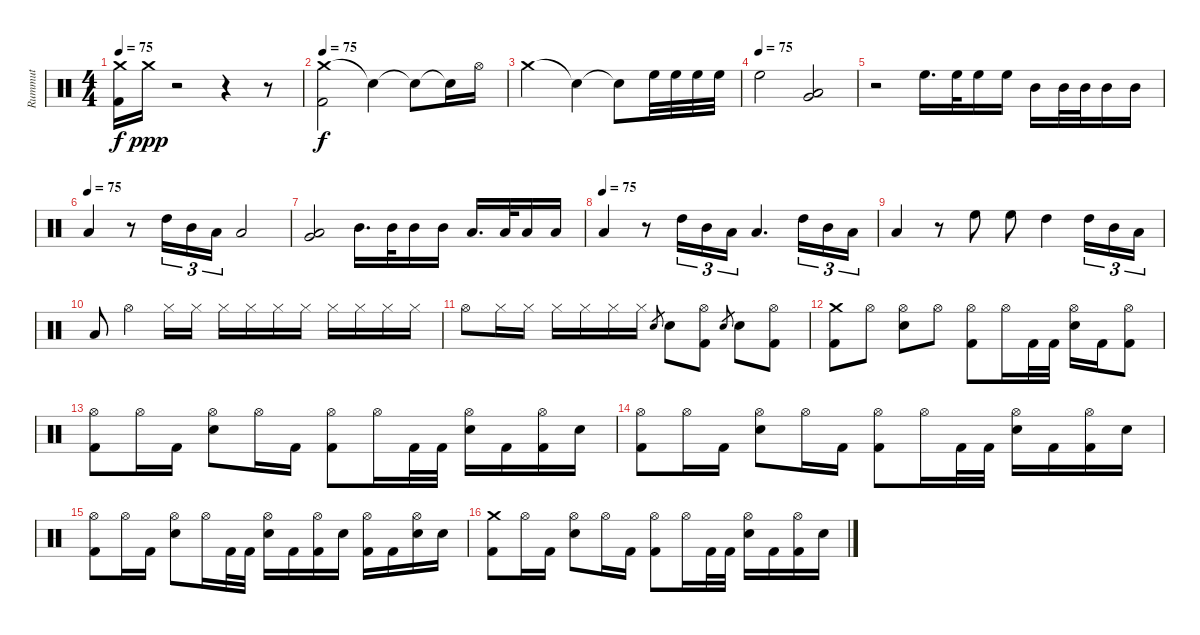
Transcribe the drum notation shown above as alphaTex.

\track ("Rummut" "Rummut") {instrument percussion}
\staff {score}
\articulation defaults
\ts (4 4)
\tempo 75
\clef neutral
\ks c
("Crash medium (hit)" "Kick (hit) 2").16{dy f} "Crash medium (hit)".16{dy ppp} r.2 r.4 r.8 |
\tempo 75
("Crash medium (hit)" "Kick (hit) 2").2{dy f} "Snare (hit)"{t}.4 "Snare (hit)"{t}.8 "Snare (hit)"{t}.16 "Hi-Hat (open)".16 |
"Crash medium (hit)".2 "Snare (hit)"{t}.4 "Snare (hit)"{t}.8 "High Floor Tom (hit)".32 "High Floor Tom (hit)".32 "High Floor Tom (hit)".32 "High Floor Tom (hit)".32 |
\tempo (75)
"High Floor Tom (hit)".2 ("Very Low Tom (hit)" "Low Floor Tom (hit)").2 |
r.2 "High Floor Tom (hit)".16{d} "High Floor Tom (hit)".32 "High Floor Tom (hit)".16 "High Floor Tom (hit)".16 "Mid Tom (hit)".16 "Mid Tom (hit)".32 "Mid Tom (hit)".32 "Mid Tom (hit)".16 "Mid Tom (hit)".16 |
\tempo (75)
"Low Floor Tom (hit)".4 r.8 "High Tom (hit)".16{tu (3 2)} "Mid Tom (hit)".16{tu (3 2)} "Low Tom (hit)".16{tu (3 2)} "Low Floor Tom (hit)".2 |
("Very Low Tom (hit)" "Low Floor Tom (hit)").2 "Mid Tom (hit)".16{d} "Mid Tom (hit)".32 "Mid Tom (hit)".16 "Mid Tom (hit)".16 "Low Tom (hit)".16{d} "Low Tom (hit)".32 "Low Tom (hit)".16 "Low Tom (hit)".16 |
\tempo (75)
"Low Floor Tom (hit)".4 r.8 "High Tom (hit)".16{tu (3 2)} "Mid Tom (hit)".16{tu (3 2)} "Low Tom (hit)".16{tu (3 2)} "Low Floor Tom (hit)".4{d} "High Tom (hit)".16{tu (3 2)} "Mid Tom (hit)".16{tu (3 2)} "Low Tom (hit)".16{tu (3 2)} |
"Low Floor Tom (hit)".4 r.8 "High Floor Tom (hit)".8 "High Floor Tom (hit)".8 "High Tom (hit)".4 "High Tom (hit)".16{tu (3 2)} "Mid Tom (hit)".16{tu (3 2)} "Low Tom (hit)".16{tu (3 2)} |
"Low Floor Tom (hit)".8 "Hi-Hat (open)".4 "Hi-Hat (closed)".16 "Hi-Hat (closed)".16 "Hi-Hat (closed)".16 "Hi-Hat (closed)".16 "Hi-Hat (closed)".16 "Hi-Hat (closed)".16 "Hi-Hat (closed)".16 "Hi-Hat (closed)".16 "Hi-Hat (closed)".16 "Hi-Hat (closed)".16 |
"Hi-Hat (open)".8 "Hi-Hat (closed)".16 "Hi-Hat (closed)".16 "Hi-Hat (closed)".16 "Hi-Hat (closed)".16 "Hi-Hat (closed)".16 "Hi-Hat (closed)".16 "Snare (hit) 2".8{gr} "Snare (hit) 2".8 ("Hi-Hat (open)" "Kick (hit) 2").8 "Snare (hit) 2".8{gr} "Snare (hit) 2".8 ("Hi-Hat (open)" "Kick (hit) 2").8 |
("Crash medium (hit)" "Kick (hit) 2").8 "Hi-Hat (open)".8 ("Hi-Hat (open)" "Snare (hit) 2").8 "Hi-Hat (open)".8 ("Hi-Hat (open)" "Kick (hit) 2").8 "Hi-Hat (open)".16 "Kick (hit) 2".32 "Kick (hit) 2".32 ("Hi-Hat (open)" "Snare (hit) 2").16 "Kick (hit) 2".16 ("Hi-Hat (open)" "Kick (hit) 2").8 |
("Hi-Hat (open)" "Kick (hit) 2").8 "Hi-Hat (open)".16 "Kick (hit) 2".16 ("Hi-Hat (open)" "Snare (hit) 2").8 "Hi-Hat (open)".16 "Kick (hit) 2".16 ("Hi-Hat (open)" "Kick (hit) 2").8 "Hi-Hat (open)".16 "Kick (hit) 2".32 "Kick (hit) 2".32 ("Hi-Hat (open)" "Snare (hit) 2").16 "Kick (hit) 2".16 ("Hi-Hat (open)" "Kick (hit) 2").16 "Snare (hit) 2".16 |
("Hi-Hat (open)" "Kick (hit) 2").8 "Hi-Hat (open)".16 "Kick (hit) 2".16 ("Hi-Hat (open)" "Snare (hit) 2").8 "Hi-Hat (open)".16 "Kick (hit) 2".16 ("Hi-Hat (open)" "Kick (hit) 2").8 "Hi-Hat (open)".16 "Kick (hit) 2".32 "Kick (hit) 2".32 ("Hi-Hat (open)" "Snare (hit) 2").16 "Kick (hit) 2".16 ("Hi-Hat (open)" "Kick (hit) 2").16 "Snare (hit) 2".16 |
("Hi-Hat (open)" "Kick (hit) 2").8 "Hi-Hat (open)".16 "Kick (hit) 2".16 ("Hi-Hat (open)" "Snare (hit) 2").8 "Hi-Hat (open)".16 "Kick (hit) 2".32 "Kick (hit) 2".32 ("Hi-Hat (open)" "Snare (hit) 2").16 "Kick (hit) 2".16 ("Hi-Hat (open)" "Kick (hit) 2").16 "Snare (hit) 2".16 ("Hi-Hat (open)" "Kick (hit) 2").16 "Kick (hit) 2".16 ("Hi-Hat (open)" "Snare (hit) 2").16 "Snare (hit) 2".16 |
("Crash medium (hit)" "Kick (hit) 2").8 "Hi-Hat (open)".16 "Kick (hit) 2".16 ("Hi-Hat (open)" "Snare (hit) 2").8 "Hi-Hat (open)".16 "Kick (hit) 2".16 ("Hi-Hat (open)" "Kick (hit) 2").8 "Hi-Hat (open)".16 "Kick (hit) 2".32 "Kick (hit) 2".32 ("Hi-Hat (open)" "Snare (hit) 2").16 "Kick (hit) 2".16 ("Hi-Hat (open)" "Kick (hit) 2").16 "Snare (hit) 2".16
